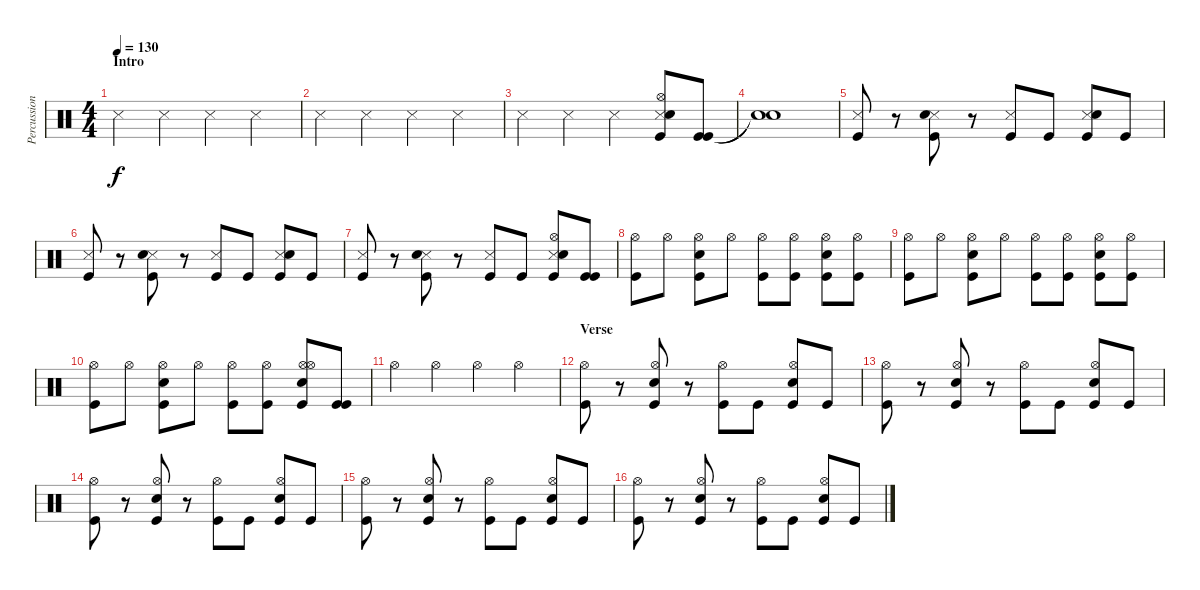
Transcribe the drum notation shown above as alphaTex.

\track ("Percussion" "Percussion") {instrument percussion}
\staff {score}
\articulation defaults
\ts (4 4)
\section ("" "Intro")
\tempo 130
\clef neutral
\ks c "Snare (side stick) 3".4{dy f} "Snare (side stick) 3".4 "Snare (side stick) 3".4 "Snare (side stick) 3".4
|
"Snare (side stick) 3".4 "Snare (side stick) 3".4 "Snare (side stick) 3".4 "Snare (side stick) 3".4 |
"Snare (side stick) 3".4 "Snare (side stick) 3".4 "Snare (side stick) 3".4 ("Snare (side stick) 3" "Kick (hit)" "Hi-Hat (open)" "Snare (hit) 2").8 ("Kick (hit)" "Kick (hit)").8 |
("Snare (hit)"{t} "Snare (hit)"{t}).1 |
("Snare (side stick) 3" "Kick (hit)").8{volume 16} r.8{volume 14} ("Snare (side stick) 3" "Kick (hit)" "Snare (hit) 2").8 r.8 ("Snare (side stick) 3" "Kick (hit)").8{volume 16} "Kick (hit)".8{volume 14} ("Snare (side stick) 3" "Kick (hit)" "Snare (hit) 2").8 "Kick (hit)".8 |
("Snare (side stick) 3" "Kick (hit)").8{volume 16} r.8{volume 14} ("Snare (side stick) 3" "Kick (hit)" "Snare (hit) 2").8 r.8 ("Snare (side stick) 3" "Kick (hit)").8{volume 16} "Kick (hit)".8{volume 14} ("Snare (side stick) 3" "Kick (hit)" "Snare (hit) 2").8 "Kick (hit)".8 |
("Snare (side stick) 3" "Kick (hit)").8{volume 16} r.8{volume 14} ("Snare (side stick) 3" "Kick (hit)" "Snare (hit) 2").8 r.8 ("Snare (side stick) 3" "Kick (hit)").8{volume 16} "Kick (hit)".8{volume 14} ("Snare (side stick) 3" "Kick (hit)" "Hi-Hat (open)" "Snare (hit) 2").8 ("Kick (hit)" "Kick (hit)").8 |
("Hi-Hat (open)" "Kick (hit)").8{volume 16} "Hi-Hat (open)".8{volume 14} ("Hi-Hat (open)" "Kick (hit)" "Snare (hit) 2").8 "Hi-Hat (open)".8 ("Hi-Hat (open)" "Kick (hit)").8{volume 16} ("Hi-Hat (open)" "Kick (hit)").8{volume 14} ("Hi-Hat (open)" "Kick (hit)" "Snare (hit) 2").8 ("Hi-Hat (open)" "Kick (hit)").8 |
("Hi-Hat (open)" "Kick (hit)").8{volume 16} "Hi-Hat (open)".8{volume 14} ("Hi-Hat (open)" "Kick (hit)" "Snare (hit) 2").8 "Hi-Hat (open)".8 ("Hi-Hat (open)" "Kick (hit)").8{volume 16} ("Hi-Hat (open)" "Kick (hit)").8{volume 14} ("Hi-Hat (open)" "Kick (hit)" "Snare (hit) 2").8 ("Hi-Hat (open)" "Kick (hit)").8 |
("Hi-Hat (open)" "Kick (hit)").8{volume 16} "Hi-Hat (open)".8{volume 14} ("Hi-Hat (open)" "Kick (hit)" "Snare (hit) 2").8 "Hi-Hat (open)".8 ("Hi-Hat (open)" "Kick (hit)").8{volume 16} ("Hi-Hat (open)" "Kick (hit)").8{volume 14} ("Hi-Hat (open)" "Kick (hit)" "Hi-Hat (open)" "Snare (hit) 2").8 ("Kick (hit)" "Kick (hit)").8 |
"Hi-Hat (open)".4{volume 16} "Hi-Hat (open)".4{volume 16} "Hi-Hat (open)".4{volume 16} "Hi-Hat (open)".4{volume 16} |
\section ("" "Verse")
("Hi-Hat (open)" "Kick (hit)").8{volume 16} r.8{volume 14} ("Hi-Hat (open)" "Kick (hit)" "Snare (hit) 2").8 r.8 ("Hi-Hat (open)" "Kick (hit)").8{volume 16} "Kick (hit)".8{volume 14} ("Hi-Hat (open)" "Kick (hit)" "Snare (hit) 2").8 "Kick (hit)".8 |
("Hi-Hat (open)" "Kick (hit)").8{volume 16} r.8{volume 14} ("Hi-Hat (open)" "Kick (hit)" "Snare (hit) 2").8 r.8 ("Hi-Hat (open)" "Kick (hit)").8{volume 16} "Kick (hit)".8{volume 14} ("Hi-Hat (open)" "Kick (hit)" "Snare (hit) 2").8 "Kick (hit)".8 |
("Hi-Hat (open)" "Kick (hit)").8{volume 16} r.8{volume 14} ("Hi-Hat (open)" "Kick (hit)" "Snare (hit) 2").8 r.8 ("Hi-Hat (open)" "Kick (hit)").8{volume 16} "Kick (hit)".8{volume 14} ("Hi-Hat (open)" "Kick (hit)" "Snare (hit) 2").8 "Kick (hit)".8 |
("Hi-Hat (open)" "Kick (hit)").8{volume 16} r.8{volume 14} ("Hi-Hat (open)" "Kick (hit)" "Snare (hit) 2").8 r.8 ("Hi-Hat (open)" "Kick (hit)").8{volume 16} "Kick (hit)".8{volume 14} ("Hi-Hat (open)" "Kick (hit)" "Snare (hit) 2").8 "Kick (hit)".8 |
("Hi-Hat (open)" "Kick (hit)").8{volume 16} r.8{volume 14} ("Hi-Hat (open)" "Kick (hit)" "Snare (hit) 2").8 r.8 ("Hi-Hat (open)" "Kick (hit)").8{volume 16} "Kick (hit)".8{volume 14} ("Hi-Hat (open)" "Kick (hit)" "Snare (hit) 2").8 "Kick (hit)".8
